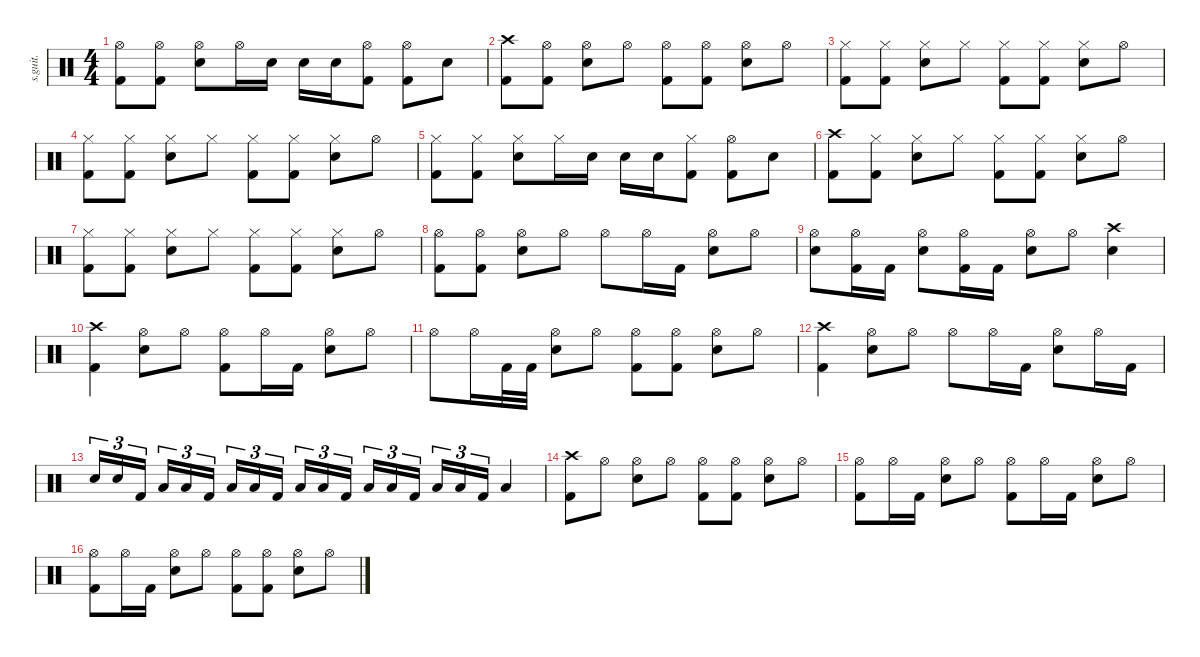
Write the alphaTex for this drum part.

\defaultSystemsLayout 4
\hideDynamics
\bracketExtendMode nobrackets
\track ("" "s.guit.") {instrument percussion}
\staff {score}
\articulation defaults
\ts (4 4)
\tempo (128 hide)
\clef neutral
\ks c
("Hi-Hat (open)" "Kick (hit) 2").8{dy f} ("Hi-Hat (open)" "Kick (hit) 2").8 ("Hi-Hat (open)" "Snare (hit) 2").8 "Hi-Hat (open)".16 "Snare (hit) 2".16 "Snare (hit) 2".16 "Snare (hit) 2".16 ("Hi-Hat (open)" "Kick (hit) 2").8 ("Hi-Hat (open)" "Kick (hit) 2").8 "Snare (hit) 2".8 |
("Crash high (hit)" "Kick (hit) 2").8 ("Hi-Hat (open)" "Kick (hit) 2").8 ("Hi-Hat (open)" "Snare (hit) 2").8 "Hi-Hat (open)".8 ("Hi-Hat (open)" "Kick (hit) 2").8 ("Hi-Hat (open)" "Kick (hit) 2").8 ("Hi-Hat (open)" "Snare (hit) 2").8 "Hi-Hat (open)".8 |
("Hi-Hat (closed)" "Kick (hit) 2").8 ("Hi-Hat (closed)" "Kick (hit) 2").8 ("Hi-Hat (closed)" "Snare (hit) 2").8 "Hi-Hat (closed)".8 ("Hi-Hat (closed)" "Kick (hit) 2").8 ("Hi-Hat (closed)" "Kick (hit) 2").8 ("Hi-Hat (closed)" "Snare (hit) 2").8 "Hi-Hat (open)".8 |
("Hi-Hat (closed)" "Kick (hit) 2").8 ("Hi-Hat (closed)" "Kick (hit) 2").8 ("Hi-Hat (closed)" "Snare (hit) 2").8 "Hi-Hat (closed)".8 ("Hi-Hat (closed)" "Kick (hit) 2").8 ("Hi-Hat (closed)" "Kick (hit) 2").8 ("Hi-Hat (closed)" "Snare (hit) 2").8 "Hi-Hat (open)".8 |
("Hi-Hat (closed)" "Kick (hit) 2").8 ("Hi-Hat (closed)" "Kick (hit) 2").8 ("Hi-Hat (closed)" "Snare (hit) 2").8 "Hi-Hat (closed)".16 "Snare (hit) 2".16 "Snare (hit) 2".16 "Snare (hit) 2".16 ("Hi-Hat (closed)" "Kick (hit) 2").8 ("Hi-Hat (open)" "Kick (hit) 2").8 "Snare (hit) 2".8 |
("Crash high (hit)" "Kick (hit) 2").8 ("Hi-Hat (closed)" "Kick (hit) 2").8 ("Hi-Hat (closed)" "Snare (hit) 2").8 "Hi-Hat (closed)".8 ("Hi-Hat (closed)" "Kick (hit) 2").8 ("Hi-Hat (closed)" "Kick (hit) 2").8 ("Hi-Hat (closed)" "Snare (hit) 2").8 "Hi-Hat (open)".8 |
("Hi-Hat (closed)" "Kick (hit) 2").8 ("Hi-Hat (closed)" "Kick (hit) 2").8 ("Hi-Hat (closed)" "Snare (hit) 2").8 "Hi-Hat (closed)".8 ("Hi-Hat (closed)" "Kick (hit) 2").8 ("Hi-Hat (closed)" "Kick (hit) 2").8 ("Hi-Hat (closed)" "Snare (hit) 2").8 "Hi-Hat (open)".8 |
("Hi-Hat (open)" "Kick (hit) 2").8 ("Hi-Hat (open)" "Kick (hit) 2").8 ("Hi-Hat (open)" "Snare (hit) 2").8 "Hi-Hat (open)".8 "Hi-Hat (open)".8 "Hi-Hat (open)".16 "Kick (hit) 2".16 ("Hi-Hat (open)" "Snare (hit) 2").8 "Hi-Hat (open)".8 |
("Hi-Hat (open)" "Snare (hit) 2").8 ("Hi-Hat (open)" "Kick (hit) 2").16 "Kick (hit) 2".16 ("Hi-Hat (open)" "Snare (hit) 2").8 ("Hi-Hat (open)" "Kick (hit) 2").16 "Kick (hit) 2".16 ("Hi-Hat (open)" "Snare (hit) 2").8 "Hi-Hat (open)".8 ("Crash high (hit)" "Snare (hit) 2").4 |
("Crash high (hit)" "Kick (hit) 2").4 ("Hi-Hat (open)" "Snare (hit) 2").8 "Hi-Hat (open)".8 ("Hi-Hat (open)" "Kick (hit) 2").8 "Hi-Hat (open)".16 "Kick (hit) 2".16 ("Hi-Hat (open)" "Snare (hit) 2").8 "Hi-Hat (open)".8 |
"Hi-Hat (open)".8 "Hi-Hat (open)".16 "Kick (hit) 2".32 "Kick (hit) 2".32 ("Hi-Hat (open)" "Snare (hit) 2").8 "Hi-Hat (open)".8 ("Hi-Hat (open)" "Kick (hit) 2").8 ("Hi-Hat (open)" "Kick (hit) 2").8 ("Hi-Hat (open)" "Snare (hit) 2").8 "Hi-Hat (open)".8 |
("Crash high (hit)" "Kick (hit) 2").4 ("Hi-Hat (open)" "Snare (hit) 2").8 "Hi-Hat (open)".8 "Hi-Hat (open)".8 "Hi-Hat (open)".16 "Kick (hit) 2".16 ("Hi-Hat (open)" "Snare (hit) 2").8 "Hi-Hat (open)".16 "Kick (hit) 2".16 |
"Snare (hit) 2".16{tu (3 2)} "Snare (hit) 2".16{tu (3 2)} "Kick (hit) 2".16{tu (3 2)} "Low Tom (hit)".16{tu (3 2)} "Low Tom (hit)".16{tu (3 2)} "Kick (hit) 2".16{tu (3 2)} "Low Tom (hit)".16{tu (3 2)} "Low Tom (hit)".16{tu (3 2)} "Kick (hit) 2".16{tu (3 2)} "Low Tom (hit)".16{tu (3 2)} "Low Tom (hit)".16{tu (3 2)} "Kick (hit) 2".16{tu (3 2)} "Low Tom (hit)".16{tu (3 2)} "Low Tom (hit)".16{tu (3 2)} "Kick (hit) 2".16{tu (3 2)} "Low Tom (hit)".16{tu (3 2)} "Low Tom (hit)".16{tu (3 2)} "Kick (hit) 2".16{tu (3 2)} "Low Tom (hit)".4 |
("Crash high (hit)" "Kick (hit) 2").8 "Hi-Hat (open)".8 ("Hi-Hat (open)" "Snare (hit) 2").8 "Hi-Hat (open)".8 ("Hi-Hat (open)" "Kick (hit) 2").8 ("Hi-Hat (open)" "Kick (hit) 2").8 ("Hi-Hat (open)" "Snare (hit) 2").8 "Hi-Hat (open)".8 |
("Hi-Hat (open)" "Kick (hit) 2").8 "Hi-Hat (open)".16 "Kick (hit) 2".16 ("Hi-Hat (open)" "Snare (hit) 2").8 "Hi-Hat (open)".8 ("Hi-Hat (open)" "Kick (hit) 2").8 "Hi-Hat (open)".16 "Kick (hit) 2".16 ("Hi-Hat (open)" "Snare (hit) 2").8 "Hi-Hat (open)".8 |
("Hi-Hat (open)" "Kick (hit) 2").8 "Hi-Hat (open)".16 "Kick (hit) 2".16 ("Hi-Hat (open)" "Snare (hit) 2").8 "Hi-Hat (open)".8 ("Hi-Hat (open)" "Kick (hit) 2").8 ("Hi-Hat (open)" "Kick (hit) 2").8 ("Hi-Hat (open)" "Snare (hit) 2").8 "Hi-Hat (open)".8
